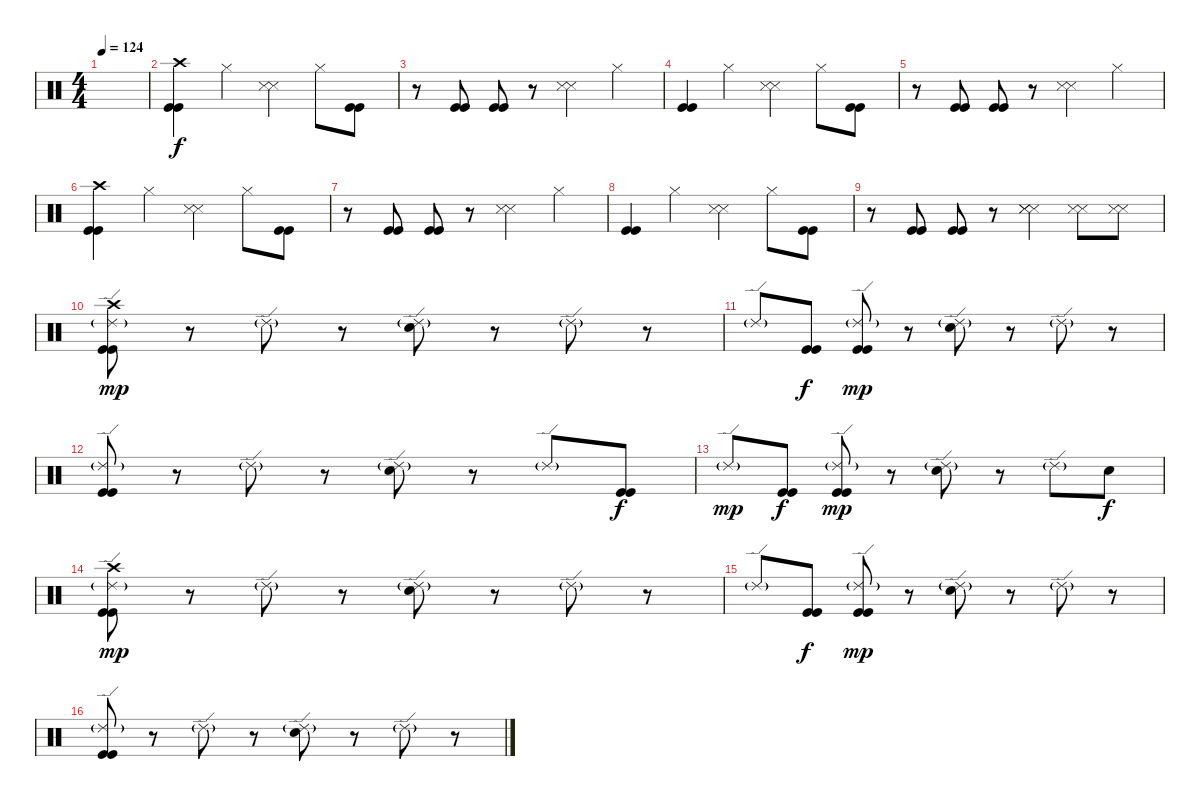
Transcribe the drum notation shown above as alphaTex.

\track "" {instrument percussion}
\staff {score}
\articulation defaults
\ts (4 4)
\tempo 124
\clef neutral
\ks c
|
("Crash high (hit)" "Kick (hit)" "Kick (hit)").4 "Hi-Hat (closed)".4 ("Snare (side stick) 3" "Snare (side stick) 3").4 "Hi-Hat (closed)".8 ("Kick (hit)" "Kick (hit)").8 |
r.8 ("Kick (hit)" "Kick (hit)").8 ("Kick (hit)" "Kick (hit)").8 r.8 ("Snare (side stick) 3" "Snare (side stick) 3").4 "Hi-Hat (closed)".4 |
("Kick (hit)" "Kick (hit)").4 "Hi-Hat (closed)".4 ("Snare (side stick) 3" "Snare (side stick) 3").4 "Hi-Hat (closed)".8 ("Kick (hit)" "Kick (hit)").8 |
r.8 ("Kick (hit)" "Kick (hit)").8 ("Kick (hit)" "Kick (hit)").8 r.8 ("Snare (side stick) 3" "Snare (side stick) 3").4 "Hi-Hat (closed)".4 |
("Crash high (hit)" "Kick (hit)" "Kick (hit)").4 "Hi-Hat (closed)".4 ("Snare (side stick) 3" "Snare (side stick) 3").4 "Hi-Hat (closed)".8 ("Kick (hit)" "Kick (hit)").8 |
r.8 ("Kick (hit)" "Kick (hit)").8 ("Kick (hit)" "Kick (hit)").8 r.8 ("Snare (side stick) 3" "Snare (side stick) 3").4 "Hi-Hat (closed)".4 |
("Kick (hit)" "Kick (hit)").4 "Hi-Hat (closed)".4 ("Snare (side stick) 3" "Snare (side stick) 3").4 "Hi-Hat (closed)".8 ("Kick (hit)" "Kick (hit)").8 |
r.8 ("Kick (hit)" "Kick (hit)").8 ("Kick (hit)" "Kick (hit)").8 r.8 ("Snare (side stick) 3" "Snare (side stick) 3" "Snare (side stick) 3").4{bu 120} ("Snare (side stick) 3" "Snare (side stick) 3").8 ("Snare (side stick) 3" "Snare (side stick) 3").8 |
("Crash high (hit)" "Ride (edge) 2"{g} "Kick (hit)" "Kick (hit)").8{dy mp} r.8 "Ride (edge) 2"{g}.8 r.8 ("Ride (edge) 2"{g} "Electric Snare (hit)").8 r.8 "Ride (edge) 2"{g}.8 r.8 |
"Ride (edge) 2"{g}.8 ("Kick (hit)" "Kick (hit)").8{dy f} ("Ride (edge) 2"{g} "Kick (hit)" "Kick (hit)").8{dy mp} r.8 ("Ride (edge) 2"{g} "Electric Snare (hit)").8 r.8 "Ride (edge) 2"{g}.8 r.8 |
("Ride (edge) 2"{g} "Kick (hit)" "Kick (hit)").8 r.8 "Ride (edge) 2"{g}.8 r.8 ("Ride (edge) 2"{g} "Electric Snare (hit)").8 r.8 "Ride (edge) 2"{g}.8 ("Kick (hit)" "Kick (hit)").8{dy f} |
"Ride (edge) 2"{g}.8{dy mp} ("Kick (hit)" "Kick (hit)").8{dy f} ("Ride (edge) 2"{g} "Kick (hit)" "Kick (hit)").8{dy mp} r.8 ("Ride (edge) 2"{g} "Electric Snare (hit)").8 r.8 "Ride (edge) 2"{g}.8 "Electric Snare (hit)".8{dy f} |
("Crash high (hit)" "Ride (edge) 2"{g} "Kick (hit)" "Kick (hit)").8{dy mp} r.8 "Ride (edge) 2"{g}.8 r.8 ("Ride (edge) 2"{g} "Electric Snare (hit)").8 r.8 "Ride (edge) 2"{g}.8 r.8 |
"Ride (edge) 2"{g}.8 ("Kick (hit)" "Kick (hit)").8{dy f} ("Ride (edge) 2"{g} "Kick (hit)" "Kick (hit)").8{dy mp} r.8 ("Ride (edge) 2"{g} "Electric Snare (hit)").8 r.8 "Ride (edge) 2"{g}.8 r.8 |
("Ride (edge) 2"{g} "Kick (hit)" "Kick (hit)").8 r.8 "Ride (edge) 2"{g}.8 r.8 ("Ride (edge) 2"{g} "Electric Snare (hit)").8 r.8 "Ride (edge) 2"{g}.8 r.8
